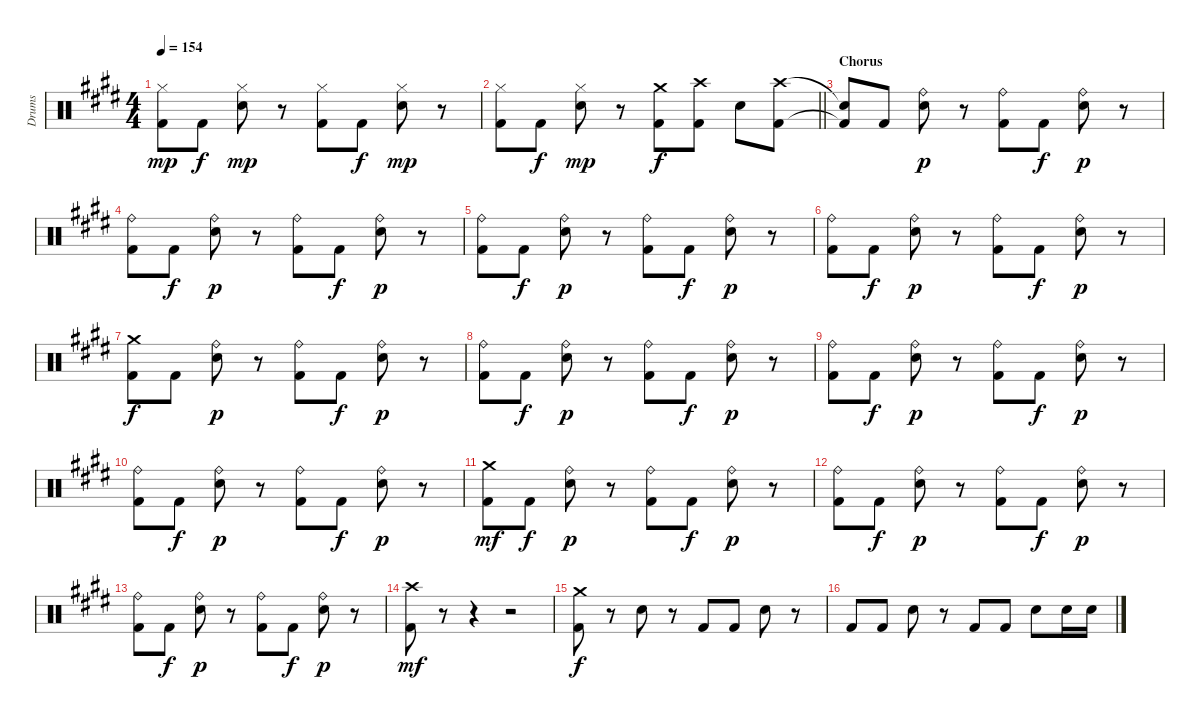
\track ("Drums" "Drums") {instrument percussion}
\staff {score}
\articulation defaults
\ts (4 4)
\tempo 154
\clef neutral
\ks e
("Hi-Hat (closed)" "Kick (hit) 2").8{dy mp} "Kick (hit) 2".8{dy f} ("Hi-Hat (closed)" "Electric Snare (hit)").8{dy mp} r.8 ("Hi-Hat (closed)" "Kick (hit) 2").8 "Kick (hit) 2".8{dy f} ("Hi-Hat (closed)" "Electric Snare (hit)").8{dy mp} r.8 |
\barLineRight lightlight
("Hi-Hat (closed)" "Kick (hit) 2").8 "Kick (hit) 2".8{dy f} ("Hi-Hat (closed)" "Electric Snare (hit)").8{dy mp} r.8 ("Crash medium (hit)" "Kick (hit) 2").8{dy f} ("Crash high (hit)" "Kick (hit) 2").8 "Electric Snare (hit)".8 ("Crash high (hit)" "Kick (hit) 2").8 |
\section ("" "Chorus")
("Snare (hit)"{t} "Kick (hit) 2"{t}).8 "Kick (hit) 2".8 ("Ride (bell)" "Electric Snare (hit)").8{dy p} r.8 ("Ride (bell)" "Kick (hit) 2").8 "Kick (hit) 2".8{dy f} ("Ride (bell)" "Electric Snare (hit)").8{dy p} r.8 |
("Ride (bell)" "Kick (hit) 2").8 "Kick (hit) 2".8{dy f} ("Ride (bell)" "Electric Snare (hit)").8{dy p} r.8 ("Ride (bell)" "Kick (hit) 2").8 "Kick (hit) 2".8{dy f} ("Ride (bell)" "Electric Snare (hit)").8{dy p} r.8 |
("Ride (bell)" "Kick (hit) 2").8 "Kick (hit) 2".8{dy f} ("Ride (bell)" "Electric Snare (hit)").8{dy p} r.8 ("Ride (bell)" "Kick (hit) 2").8 "Kick (hit) 2".8{dy f} ("Ride (bell)" "Electric Snare (hit)").8{dy p} r.8 |
("Ride (bell)" "Kick (hit) 2").8 "Kick (hit) 2".8{dy f} ("Ride (bell)" "Electric Snare (hit)").8{dy p} r.8 ("Ride (bell)" "Kick (hit) 2").8 "Kick (hit) 2".8{dy f} ("Ride (bell)" "Electric Snare (hit)").8{dy p} r.8 |
("Crash medium (hit)" "Kick (hit) 2").8{dy f} "Kick (hit) 2".8 ("Ride (bell)" "Electric Snare (hit)").8{dy p} r.8 ("Ride (bell)" "Kick (hit) 2").8 "Kick (hit) 2".8{dy f} ("Ride (bell)" "Electric Snare (hit)").8{dy p} r.8 |
("Ride (bell)" "Kick (hit) 2").8 "Kick (hit) 2".8{dy f} ("Ride (bell)" "Electric Snare (hit)").8{dy p} r.8 ("Ride (bell)" "Kick (hit) 2").8 "Kick (hit) 2".8{dy f} ("Ride (bell)" "Electric Snare (hit)").8{dy p} r.8 |
("Ride (bell)" "Kick (hit) 2").8 "Kick (hit) 2".8{dy f} ("Ride (bell)" "Electric Snare (hit)").8{dy p} r.8 ("Ride (bell)" "Kick (hit) 2").8 "Kick (hit) 2".8{dy f} ("Ride (bell)" "Electric Snare (hit)").8{dy p} r.8 |
("Ride (bell)" "Kick (hit) 2").8 "Kick (hit) 2".8{dy f} ("Ride (bell)" "Electric Snare (hit)").8{dy p} r.8 ("Ride (bell)" "Kick (hit) 2").8 "Kick (hit) 2".8{dy f} ("Ride (bell)" "Electric Snare (hit)").8{dy p} r.8 |
("Crash medium (hit)" "Kick (hit) 2").8{dy mf} "Kick (hit) 2".8{dy f} ("Ride (bell)" "Electric Snare (hit)").8{dy p} r.8 ("Ride (bell)" "Kick (hit) 2").8 "Kick (hit) 2".8{dy f} ("Ride (bell)" "Electric Snare (hit)").8{dy p} r.8 |
("Ride (bell)" "Kick (hit) 2").8 "Kick (hit) 2".8{dy f} ("Ride (bell)" "Electric Snare (hit)").8{dy p} r.8 ("Ride (bell)" "Kick (hit) 2").8 "Kick (hit) 2".8{dy f} ("Ride (bell)" "Electric Snare (hit)").8{dy p} r.8 |
("Ride (bell)" "Kick (hit) 2").8 "Kick (hit) 2".8{dy f} ("Ride (bell)" "Electric Snare (hit)").8{dy p} r.8 ("Ride (bell)" "Kick (hit) 2").8 "Kick (hit) 2".8{dy f} ("Ride (bell)" "Electric Snare (hit)").8{dy p} r.8 |
("Crash high (hit)" "Kick (hit) 2").8{dy mf} r.8 r.4 r.2 |
("Crash medium (hit)" "Kick (hit) 2").8{dy f} r.8 "Electric Snare (hit)".8 r.8 "Kick (hit) 2".8 "Kick (hit) 2".8 "Electric Snare (hit)".8 r.8 |
"Kick (hit) 2".8 "Kick (hit) 2".8 "Electric Snare (hit)".8 r.8 "Kick (hit) 2".8 "Kick (hit) 2".8 "Electric Snare (hit)".8 "Electric Snare (hit)".16 "Electric Snare (hit)".16
